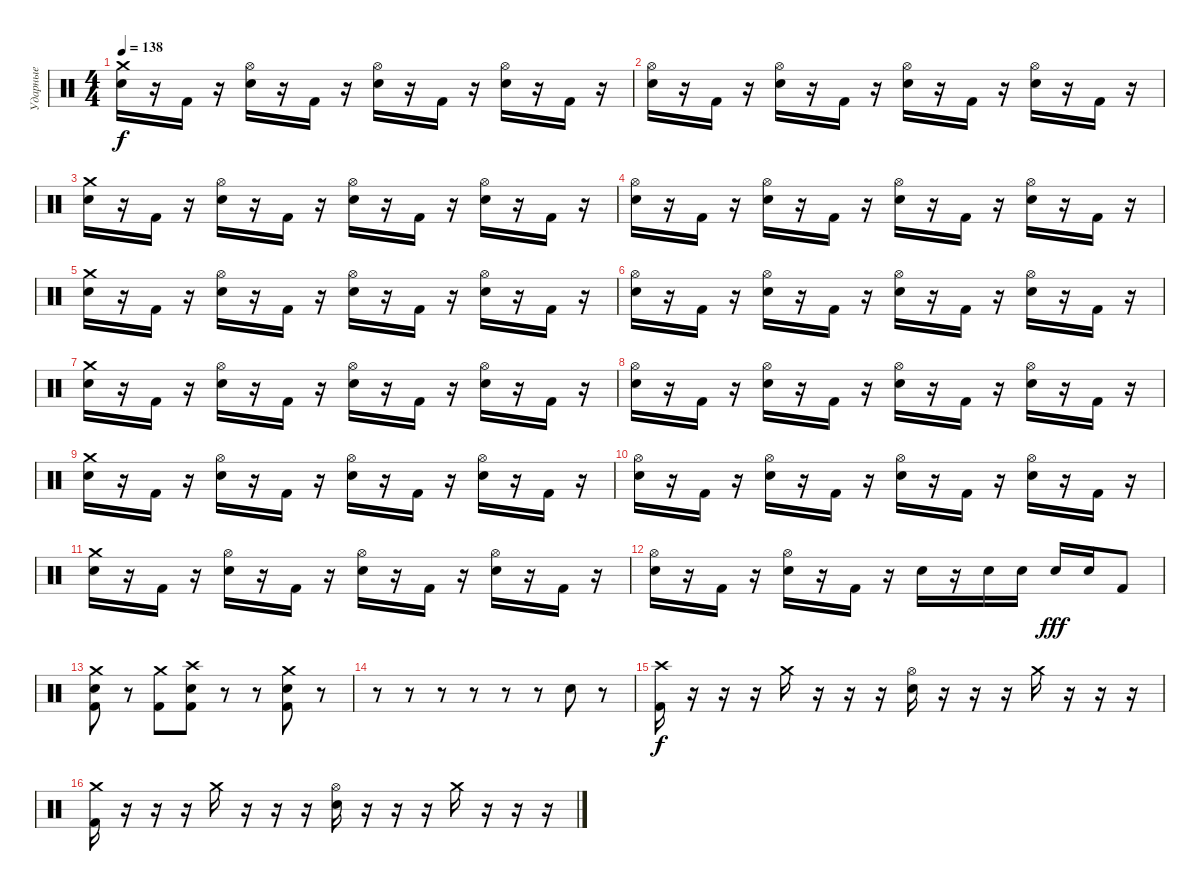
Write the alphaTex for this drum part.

\track ("Ударные" "Ударные") {instrument percussion}
\staff {score}
\articulation defaults
\ts (4 4)
\tempo 138
\clef neutral
\ks c
("Crash medium (hit)" "Snare (hit) 2").16{dy f} r.16 "Kick (hit) 2".16 r.16 ("Hi-Hat (open)" "Snare (hit) 2").16 r.16 "Kick (hit) 2".16 r.16 ("Hi-Hat (open)" "Snare (hit) 2").16 r.16 "Kick (hit) 2".16 r.16 ("Hi-Hat (open)" "Snare (hit) 2").16 r.16 "Kick (hit) 2".16 r.16 |
("Hi-Hat (open)" "Snare (hit) 2").16 r.16 "Kick (hit) 2".16 r.16 ("Hi-Hat (open)" "Snare (hit) 2").16 r.16 "Kick (hit) 2".16 r.16 ("Hi-Hat (open)" "Snare (hit) 2").16 r.16 "Kick (hit) 2".16 r.16 ("Hi-Hat (open)" "Snare (hit) 2").16 r.16 "Kick (hit) 2".16 r.16 |
("Crash medium (hit)" "Snare (hit) 2").16 r.16 "Kick (hit) 2".16 r.16 ("Hi-Hat (open)" "Snare (hit) 2").16 r.16 "Kick (hit) 2".16 r.16 ("Hi-Hat (open)" "Snare (hit) 2").16 r.16 "Kick (hit) 2".16 r.16 ("Hi-Hat (open)" "Snare (hit) 2").16 r.16 "Kick (hit) 2".16 r.16 |
("Hi-Hat (open)" "Snare (hit) 2").16 r.16 "Kick (hit) 2".16 r.16 ("Hi-Hat (open)" "Snare (hit) 2").16 r.16 "Kick (hit) 2".16 r.16 ("Hi-Hat (open)" "Snare (hit) 2").16 r.16 "Kick (hit) 2".16 r.16 ("Hi-Hat (open)" "Snare (hit) 2").16 r.16 "Kick (hit) 2".16 r.16 |
("Crash medium (hit)" "Snare (hit) 2").16 r.16 "Kick (hit) 2".16 r.16 ("Hi-Hat (open)" "Snare (hit) 2").16 r.16 "Kick (hit) 2".16 r.16 ("Hi-Hat (open)" "Snare (hit) 2").16 r.16 "Kick (hit) 2".16 r.16 ("Hi-Hat (open)" "Snare (hit) 2").16 r.16 "Kick (hit) 2".16 r.16 |
("Hi-Hat (open)" "Snare (hit) 2").16 r.16 "Kick (hit) 2".16 r.16 ("Hi-Hat (open)" "Snare (hit) 2").16 r.16 "Kick (hit) 2".16 r.16 ("Hi-Hat (open)" "Snare (hit) 2").16 r.16 "Kick (hit) 2".16 r.16 ("Hi-Hat (open)" "Snare (hit) 2").16 r.16 "Kick (hit) 2".16 r.16 |
("Crash medium (hit)" "Snare (hit) 2").16 r.16 "Kick (hit) 2".16 r.16 ("Hi-Hat (open)" "Snare (hit) 2").16 r.16 "Kick (hit) 2".16 r.16 ("Hi-Hat (open)" "Snare (hit) 2").16 r.16 "Kick (hit) 2".16 r.16 ("Hi-Hat (open)" "Snare (hit) 2").16 r.16 "Kick (hit) 2".16 r.16 |
("Hi-Hat (open)" "Snare (hit) 2").16 r.16 "Kick (hit) 2".16 r.16 ("Hi-Hat (open)" "Snare (hit) 2").16 r.16 "Kick (hit) 2".16 r.16 ("Hi-Hat (open)" "Snare (hit) 2").16 r.16 "Kick (hit) 2".16 r.16 ("Hi-Hat (open)" "Snare (hit) 2").16 r.16 "Kick (hit) 2".16 r.16 |
("Crash medium (hit)" "Snare (hit) 2").16 r.16 "Kick (hit) 2".16 r.16 ("Hi-Hat (open)" "Snare (hit) 2").16 r.16 "Kick (hit) 2".16 r.16 ("Hi-Hat (open)" "Snare (hit) 2").16 r.16 "Kick (hit) 2".16 r.16 ("Hi-Hat (open)" "Snare (hit) 2").16 r.16 "Kick (hit) 2".16 r.16 |
("Hi-Hat (open)" "Snare (hit) 2").16 r.16 "Kick (hit) 2".16 r.16 ("Hi-Hat (open)" "Snare (hit) 2").16 r.16 "Kick (hit) 2".16 r.16 ("Hi-Hat (open)" "Snare (hit) 2").16 r.16 "Kick (hit) 2".16 r.16 ("Hi-Hat (open)" "Snare (hit) 2").16 r.16 "Kick (hit) 2".16 r.16 |
("Crash medium (hit)" "Snare (hit) 2").16 r.16 "Kick (hit) 2".16 r.16 ("Hi-Hat (open)" "Snare (hit) 2").16 r.16 "Kick (hit) 2".16 r.16 ("Hi-Hat (open)" "Snare (hit) 2").16 r.16 "Kick (hit) 2".16 r.16 ("Hi-Hat (open)" "Snare (hit) 2").16 r.16 "Kick (hit) 2".16 r.16 |
("Hi-Hat (open)" "Snare (hit) 2").16 r.16 "Kick (hit) 2".16 r.16 ("Hi-Hat (open)" "Snare (hit) 2").16 r.16 "Kick (hit) 2".16 r.16 "Snare (hit) 2".16 r.16 "Snare (hit) 2".16 "Snare (hit) 2".16 "Snare (hit) 2".16{dy fff} "Snare (hit) 2".16 "Kick (hit) 2".8 |
("Crash medium (hit)" "Snare (hit) 2" "Kick (hit) 2").8 r.8 ("Crash medium (hit)" "Kick (hit) 2").8 ("Crash high (hit)" "Snare (hit) 2" "Kick (hit) 2").8 r.8 r.8 ("Crash medium (hit)" "Snare (hit) 2" "Kick (hit) 2").8 r.8 |
r.8 r.8 r.8 r.8 r.8 r.8 "Snare (hit) 2".8 r.8 |
("Crash high (hit)" "Kick (hit) 2").16{dy f} r.16 r.16 r.16 "Crash medium (hit)".16 r.16 r.16 r.16 ("Hi-Hat (open)" "Snare (hit) 2").16 r.16 r.16 r.16 "Crash medium (hit)".16 r.16 r.16 r.16 |
("Crash medium (hit)" "Kick (hit) 2").16 r.16 r.16 r.16 "Crash medium (hit)".16 r.16 r.16 r.16 ("Hi-Hat (open)" "Snare (hit) 2").16 r.16 r.16 r.16 "Crash medium (hit)".16 r.16 r.16 r.16
